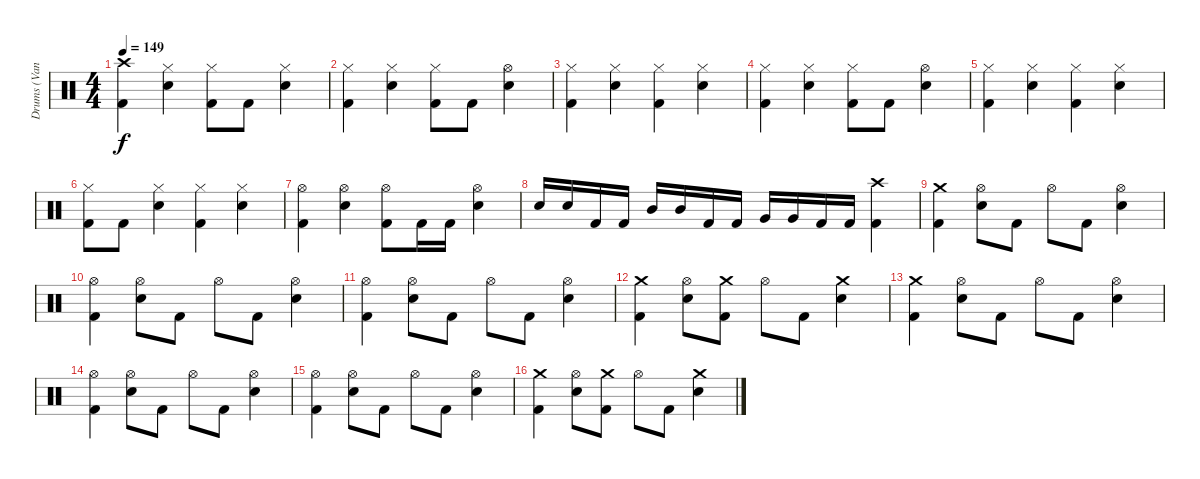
\track ("Drums (Vandel)" "Drums (Van") {instrument percussion}
\staff {score}
\articulation defaults
\ts (4 4)
\tempo 149
\clef neutral
\ks c
("Crash high (hit)" "Kick (hit) 2").4{dy f} ("Hi-Hat (closed)" "Snare (hit) 2").4 ("Hi-Hat (closed)" "Kick (hit) 2").8 "Kick (hit) 2".8 ("Hi-Hat (closed)" "Snare (hit) 2").4 |
("Hi-Hat (closed)" "Kick (hit) 2").4 ("Hi-Hat (closed)" "Snare (hit) 2").4 ("Hi-Hat (closed)" "Kick (hit) 2").8 "Kick (hit) 2".8 ("Hi-Hat (open)" "Snare (hit) 2").4 |
("Hi-Hat (closed)" "Kick (hit) 2").4 ("Hi-Hat (closed)" "Snare (hit) 2").4 ("Hi-Hat (closed)" "Kick (hit) 2").4 ("Hi-Hat (closed)" "Snare (hit) 2").4 |
("Hi-Hat (closed)" "Kick (hit) 2").4 ("Hi-Hat (closed)" "Snare (hit) 2").4 ("Hi-Hat (closed)" "Kick (hit) 2").8 "Kick (hit) 2".8 ("Hi-Hat (open)" "Snare (hit) 2").4 |
("Hi-Hat (closed)" "Kick (hit) 2").4 ("Hi-Hat (closed)" "Snare (hit) 2").4 ("Hi-Hat (closed)" "Kick (hit) 2").4 ("Hi-Hat (closed)" "Snare (hit) 2").4 |
("Hi-Hat (closed)" "Kick (hit) 2").8 "Kick (hit) 2".8 ("Hi-Hat (closed)" "Snare (hit) 2").4 ("Hi-Hat (closed)" "Kick (hit) 2").4 ("Hi-Hat (closed)" "Snare (hit) 2").4 |
("Hi-Hat (open)" "Kick (hit) 2").4 ("Hi-Hat (open)" "Snare (hit) 2").4 ("Hi-Hat (open)" "Kick (hit) 2").8 "Kick (hit) 2".16 "Kick (hit) 2".16 ("Hi-Hat (open)" "Snare (hit) 2").4 |
"Snare (hit) 2".16 "Snare (hit) 2".16 "Kick (hit) 2".16 "Kick (hit) 2".16 "Mid Tom (hit)".16 "Mid Tom (hit)".16 "Kick (hit) 2".16 "Kick (hit) 2".16 "Very Low Tom (hit)".16 "Very Low Tom (hit)".16 "Kick (hit) 2".16 "Kick (hit) 2".16 ("Crash high (hit)" "Kick (hit) 2").4 |
("Crash medium (hit)" "Kick (hit) 2").4 ("Hi-Hat (open)" "Snare (hit) 2").8 "Kick (hit) 2".8 "Hi-Hat (open)".8 "Kick (hit) 2".8 ("Hi-Hat (open)" "Snare (hit) 2").4 |
("Hi-Hat (open)" "Kick (hit) 2").4 ("Hi-Hat (open)" "Snare (hit) 2").8 "Kick (hit) 2".8 "Hi-Hat (open)".8 "Kick (hit) 2".8 ("Hi-Hat (open)" "Snare (hit) 2").4 |
("Hi-Hat (open)" "Kick (hit) 2").4 ("Hi-Hat (open)" "Snare (hit) 2").8 "Kick (hit) 2".8 "Hi-Hat (open)".8 "Kick (hit) 2".8 ("Hi-Hat (open)" "Snare (hit) 2").4 |
("Crash medium (hit)" "Kick (hit) 2").4 ("Hi-Hat (open)" "Snare (hit) 2").8 ("Crash medium (hit)" "Kick (hit) 2").8 "Hi-Hat (open)".8 "Kick (hit) 2".8 ("Crash medium (hit)" "Snare (hit) 2").4 |
("Crash medium (hit)" "Kick (hit) 2").4 ("Hi-Hat (open)" "Snare (hit) 2").8 "Kick (hit) 2".8 "Hi-Hat (open)".8 "Kick (hit) 2".8 ("Hi-Hat (open)" "Snare (hit) 2").4 |
("Hi-Hat (open)" "Kick (hit) 2").4 ("Hi-Hat (open)" "Snare (hit) 2").8 "Kick (hit) 2".8 "Hi-Hat (open)".8 "Kick (hit) 2".8 ("Hi-Hat (open)" "Snare (hit) 2").4 |
("Hi-Hat (open)" "Kick (hit) 2").4 ("Hi-Hat (open)" "Snare (hit) 2").8 "Kick (hit) 2".8 "Hi-Hat (open)".8 "Kick (hit) 2".8 ("Hi-Hat (open)" "Snare (hit) 2").4 |
("Crash medium (hit)" "Kick (hit) 2").4 ("Hi-Hat (open)" "Snare (hit) 2").8 ("Crash medium (hit)" "Kick (hit) 2").8 "Hi-Hat (open)".8 "Kick (hit) 2".8 ("Crash medium (hit)" "Snare (hit) 2").4
